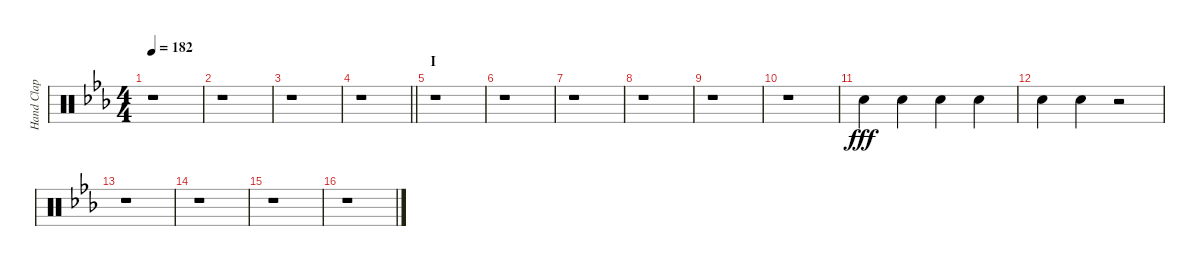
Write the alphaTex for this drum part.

\track ("Hand Clap" "Hand Clap") {instrument percussion}
\staff {score}
\articulation defaults
\ts (4 4)
\tempo 182
\clef neutral
\ks eb
r.1{dy fff} |
r.1 |
r.1 |
\barLineRight lightlight
r.1 |
\section ("" "I")
r.1 |
r.1 |
r.1 |
r.1 |
r.1 |
r.1 |
"Hand Clap (hit)".4 "Hand Clap (hit)".4 "Hand Clap (hit)".4 "Hand Clap (hit)".4 |
"Hand Clap (hit)".4 "Hand Clap (hit)".4 r.2 |
r.1 |
r.1 |
r.1 |
r.1
